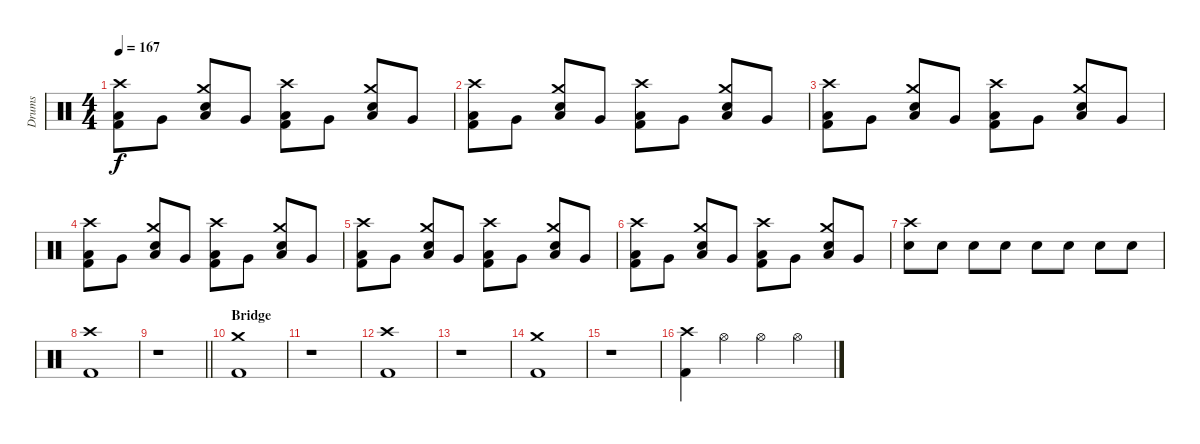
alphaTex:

\track ("Drums" "Drums") {instrument percussion}
\staff {score}
\articulation defaults
\ts (4 4)
\tempo 167
\clef neutral
\ks c
("Crash high (hit)" "Low Floor Tom (hit)" "Kick (hit) 2").8{dy f} "Very Low Tom (hit)".8 ("Crash medium (hit)" "Low Floor Tom (hit)" "Snare (hit) 2").8 "Very Low Tom (hit)".8 ("Crash high (hit)" "Low Floor Tom (hit)" "Kick (hit) 2").8 "Very Low Tom (hit)".8 ("Crash medium (hit)" "Low Floor Tom (hit)" "Snare (hit) 2").8 "Very Low Tom (hit)".8 |
("Crash high (hit)" "Low Floor Tom (hit)" "Kick (hit) 2").8 "Very Low Tom (hit)".8 ("Crash medium (hit)" "Low Floor Tom (hit)" "Snare (hit) 2").8 "Very Low Tom (hit)".8 ("Crash high (hit)" "Low Floor Tom (hit)" "Kick (hit) 2").8 "Very Low Tom (hit)".8 ("Crash medium (hit)" "Low Floor Tom (hit)" "Snare (hit) 2").8 "Very Low Tom (hit)".8 |
("Crash high (hit)" "Low Floor Tom (hit)" "Kick (hit) 2").8 "Very Low Tom (hit)".8 ("Crash medium (hit)" "Low Floor Tom (hit)" "Snare (hit) 2").8 "Very Low Tom (hit)".8 ("Crash high (hit)" "Low Floor Tom (hit)" "Kick (hit) 2").8 "Very Low Tom (hit)".8 ("Crash medium (hit)" "Low Floor Tom (hit)" "Snare (hit) 2").8 "Very Low Tom (hit)".8 |
("Crash high (hit)" "Low Floor Tom (hit)" "Kick (hit) 2").8 "Very Low Tom (hit)".8 ("Crash medium (hit)" "Low Floor Tom (hit)" "Snare (hit) 2").8 "Very Low Tom (hit)".8 ("Crash high (hit)" "Low Floor Tom (hit)" "Kick (hit) 2").8 "Very Low Tom (hit)".8 ("Crash medium (hit)" "Low Floor Tom (hit)" "Snare (hit) 2").8 "Very Low Tom (hit)".8 |
("Crash high (hit)" "Low Floor Tom (hit)" "Kick (hit) 2").8 "Very Low Tom (hit)".8 ("Crash medium (hit)" "Low Floor Tom (hit)" "Snare (hit) 2").8 "Very Low Tom (hit)".8 ("Crash high (hit)" "Low Floor Tom (hit)" "Kick (hit) 2").8 "Very Low Tom (hit)".8 ("Crash medium (hit)" "Low Floor Tom (hit)" "Snare (hit) 2").8 "Very Low Tom (hit)".8 |
("Crash high (hit)" "Low Floor Tom (hit)" "Kick (hit) 2").8 "Very Low Tom (hit)".8 ("Crash medium (hit)" "Low Floor Tom (hit)" "Snare (hit) 2").8 "Very Low Tom (hit)".8 ("Crash high (hit)" "Low Floor Tom (hit)" "Kick (hit) 2").8 "Very Low Tom (hit)".8 ("Crash medium (hit)" "Low Floor Tom (hit)" "Snare (hit) 2").8 "Very Low Tom (hit)".8 |
("Crash high (hit)" "Snare (hit) 2").8 "Snare (hit) 2".8 "Snare (hit) 2".8 "Snare (hit) 2".8 "Snare (hit) 2".8 "Snare (hit) 2".8 "Snare (hit) 2".8 "Snare (hit) 2".8 |
("Crash high (hit)" "Kick (hit) 2").1 |
\barLineRight lightlight
r.1 |
\section ("" "Bridge")
("Crash medium (hit)" "Kick (hit) 2").1 |
r.1 |
("Crash high (hit)" "Kick (hit) 2").1 |
r.1 |
("Crash medium (hit)" "Kick (hit) 2").1 |
r.1 |
("Crash high (hit)" "Kick (hit) 2").4 "Hi-Hat (open)".4 "Hi-Hat (open)".4 "Hi-Hat (open)".4
